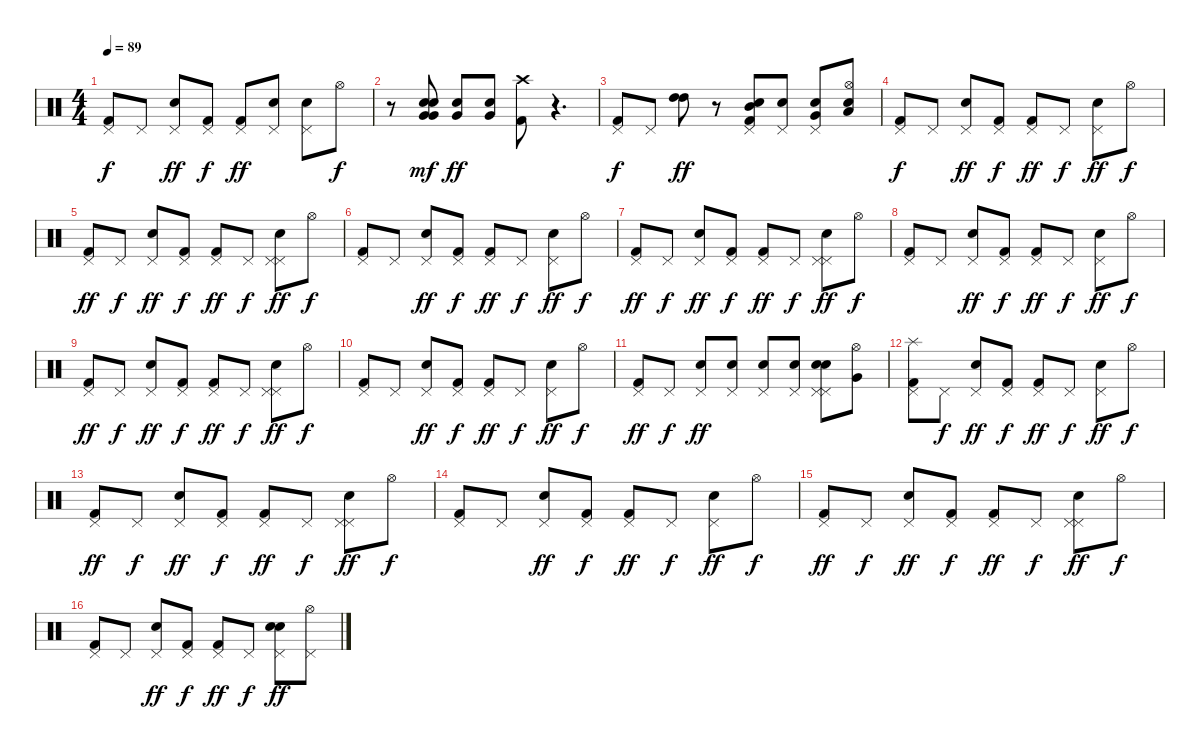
\track "" {instrument percussion}
\staff {score}
\articulation defaults
\ts (4 4)
\tempo 89
\clef neutral
\ks c
("Kick (hit) 2" "Pedal Hi-Hat (hit)").8{dy f} "Pedal Hi-Hat (hit)".8 ("Pedal Hi-Hat (hit)" "Electric Snare (hit)").8{dy ff} ("Pedal Hi-Hat (hit)" "Kick (hit) 2").8{dy f} ("Kick (hit) 2" "Pedal Hi-Hat (hit)").8{dy ff} ("Electric Snare (hit)" "Pedal Hi-Hat (hit)").8 ("Pedal Hi-Hat (hit)" "Electric Snare (hit)").8 "Hi-Hat (open)".8{dy f} |
r.8 ("Very Low Tom (hit)" "Electric Snare (hit)" "Electric Snare (hit)" "Very Low Tom (hit)").8{dy mf} ("Very Low Tom (hit)" "Electric Snare (hit)").8{dy ff} ("Very Low Tom (hit)" "Electric Snare (hit)").8 ("Kick (hit) 2" "Crash high (hit)").8 r.4{d} |
("Kick (hit) 2" "Pedal Hi-Hat (hit)").8{dy f} "Pedal Hi-Hat (hit)".8 ("High Tom (hit)" "High Tom (hit)").8{dy ff} r.8 ("Mid Tom (hit)" "Kick (hit) 2" "Pedal Hi-Hat (hit)" "Electric Snare (hit)").8 ("Pedal Hi-Hat (hit)" "Electric Snare (hit)").8 ("Pedal Hi-Hat (hit)" "Electric Snare (hit)" "Very Low Tom (hit)").8 ("Low Floor Tom (hit)" "Electric Snare (hit)" "Hi-Hat (open)").8 |
("Kick (hit) 2" "Pedal Hi-Hat (hit)").8{dy f} "Pedal Hi-Hat (hit)".8 ("Pedal Hi-Hat (hit)" "Electric Snare (hit)").8{dy ff} ("Pedal Hi-Hat (hit)" "Kick (hit) 2").8{dy f} ("Kick (hit) 2" "Pedal Hi-Hat (hit)").8{dy ff} "Pedal Hi-Hat (hit)".8{dy f} ("Pedal Hi-Hat (hit)" "Electric Snare (hit)").8{dy ff} "Hi-Hat (open)".8{dy f} |
("Pedal Hi-Hat (hit)" "Kick (hit) 2").8{dy ff} "Pedal Hi-Hat (hit)".8{dy f} ("Electric Snare (hit)" "Pedal Hi-Hat (hit)").8{dy ff} ("Pedal Hi-Hat (hit)" "Kick (hit) 2").8{dy f} ("Pedal Hi-Hat (hit)" "Kick (hit) 2").8{dy ff} "Pedal Hi-Hat (hit)".8{dy f} ("Pedal Hi-Hat (hit)" "Electric Snare (hit)" "Pedal Hi-Hat (hit)").8{dy ff} "Hi-Hat (open)".8{dy f} |
("Kick (hit) 2" "Pedal Hi-Hat (hit)").8 "Pedal Hi-Hat (hit)".8 ("Pedal Hi-Hat (hit)" "Electric Snare (hit)").8{dy ff} ("Pedal Hi-Hat (hit)" "Kick (hit) 2").8{dy f} ("Kick (hit) 2" "Pedal Hi-Hat (hit)").8{dy ff} "Pedal Hi-Hat (hit)".8{dy f} ("Pedal Hi-Hat (hit)" "Electric Snare (hit)").8{dy ff} "Hi-Hat (open)".8{dy f} |
("Pedal Hi-Hat (hit)" "Kick (hit) 2").8{dy ff} "Pedal Hi-Hat (hit)".8{dy f} ("Electric Snare (hit)" "Pedal Hi-Hat (hit)").8{dy ff} ("Pedal Hi-Hat (hit)" "Kick (hit) 2").8{dy f} ("Pedal Hi-Hat (hit)" "Kick (hit) 2").8{dy ff} "Pedal Hi-Hat (hit)".8{dy f} ("Pedal Hi-Hat (hit)" "Electric Snare (hit)" "Pedal Hi-Hat (hit)").8{dy ff} "Hi-Hat (open)".8{dy f} |
("Kick (hit) 2" "Pedal Hi-Hat (hit)").8 "Pedal Hi-Hat (hit)".8 ("Pedal Hi-Hat (hit)" "Electric Snare (hit)").8{dy ff} ("Pedal Hi-Hat (hit)" "Kick (hit) 2").8{dy f} ("Kick (hit) 2" "Pedal Hi-Hat (hit)").8{dy ff} "Pedal Hi-Hat (hit)".8{dy f} ("Pedal Hi-Hat (hit)" "Electric Snare (hit)").8{dy ff} "Hi-Hat (open)".8{dy f} |
("Pedal Hi-Hat (hit)" "Kick (hit) 2").8{dy ff} "Pedal Hi-Hat (hit)".8{dy f} ("Electric Snare (hit)" "Pedal Hi-Hat (hit)").8{dy ff} ("Pedal Hi-Hat (hit)" "Kick (hit) 2").8{dy f} ("Pedal Hi-Hat (hit)" "Kick (hit) 2").8{dy ff} "Pedal Hi-Hat (hit)".8{dy f} ("Pedal Hi-Hat (hit)" "Electric Snare (hit)" "Pedal Hi-Hat (hit)").8{dy ff} "Hi-Hat (open)".8{dy f} |
("Kick (hit) 2" "Pedal Hi-Hat (hit)").8 "Pedal Hi-Hat (hit)".8 ("Pedal Hi-Hat (hit)" "Electric Snare (hit)").8{dy ff} ("Pedal Hi-Hat (hit)" "Kick (hit) 2").8{dy f} ("Kick (hit) 2" "Pedal Hi-Hat (hit)").8{dy ff} "Pedal Hi-Hat (hit)".8{dy f} ("Pedal Hi-Hat (hit)" "Electric Snare (hit)").8{dy ff} "Hi-Hat (open)".8{dy f} |
("Pedal Hi-Hat (hit)" "Kick (hit) 2").8{dy ff} "Pedal Hi-Hat (hit)".8{dy f} ("Electric Snare (hit)" "Pedal Hi-Hat (hit)").8{dy ff} ("Pedal Hi-Hat (hit)" "Electric Snare (hit)").8 ("Electric Snare (hit)" "Pedal Hi-Hat (hit)").8 ("Electric Snare (hit)" "Pedal Hi-Hat (hit)").8 ("Electric Snare (hit)" "Pedal Hi-Hat (hit)" "Electric Snare (hit)" "Pedal Hi-Hat (hit)").8 ("Very Low Tom (hit)" "Hi-Hat (open)").8 |
("Splash (hit)" "Kick (hit) 2" "Pedal Hi-Hat (hit)").8 "Pedal Hi-Hat (hit)".8{dy f} ("Pedal Hi-Hat (hit)" "Electric Snare (hit)").8{dy ff} ("Pedal Hi-Hat (hit)" "Kick (hit) 2").8{dy f} ("Kick (hit) 2" "Pedal Hi-Hat (hit)").8{dy ff} "Pedal Hi-Hat (hit)".8{dy f} ("Pedal Hi-Hat (hit)" "Electric Snare (hit)").8{dy ff} "Hi-Hat (open)".8{dy f} |
("Pedal Hi-Hat (hit)" "Kick (hit) 2").8{dy ff} "Pedal Hi-Hat (hit)".8{dy f} ("Electric Snare (hit)" "Pedal Hi-Hat (hit)").8{dy ff} ("Pedal Hi-Hat (hit)" "Kick (hit) 2").8{dy f} ("Pedal Hi-Hat (hit)" "Kick (hit) 2").8{dy ff} "Pedal Hi-Hat (hit)".8{dy f} ("Pedal Hi-Hat (hit)" "Electric Snare (hit)" "Pedal Hi-Hat (hit)").8{dy ff} "Hi-Hat (open)".8{dy f} |
("Kick (hit) 2" "Pedal Hi-Hat (hit)").8 "Pedal Hi-Hat (hit)".8 ("Pedal Hi-Hat (hit)" "Electric Snare (hit)").8{dy ff} ("Pedal Hi-Hat (hit)" "Kick (hit) 2").8{dy f} ("Kick (hit) 2" "Pedal Hi-Hat (hit)").8{dy ff} "Pedal Hi-Hat (hit)".8{dy f} ("Pedal Hi-Hat (hit)" "Electric Snare (hit)").8{dy ff} "Hi-Hat (open)".8{dy f} |
("Pedal Hi-Hat (hit)" "Kick (hit) 2").8{dy ff} "Pedal Hi-Hat (hit)".8{dy f} ("Electric Snare (hit)" "Pedal Hi-Hat (hit)").8{dy ff} ("Pedal Hi-Hat (hit)" "Kick (hit) 2").8{dy f} ("Pedal Hi-Hat (hit)" "Kick (hit) 2").8{dy ff} "Pedal Hi-Hat (hit)".8{dy f} ("Pedal Hi-Hat (hit)" "Electric Snare (hit)" "Pedal Hi-Hat (hit)").8{dy ff} "Hi-Hat (open)".8{dy f} |
("Kick (hit) 2" "Pedal Hi-Hat (hit)").8 "Pedal Hi-Hat (hit)".8 ("Pedal Hi-Hat (hit)" "Electric Snare (hit)").8{dy ff} ("Pedal Hi-Hat (hit)" "Kick (hit) 2").8{dy f} ("Kick (hit) 2" "Pedal Hi-Hat (hit)").8{dy ff} "Pedal Hi-Hat (hit)".8{dy f} ("Pedal Hi-Hat (hit)" "Electric Snare (hit)" "Electric Snare (hit)").8{dy ff} ("Pedal Hi-Hat (hit)" "Hi-Hat (open)").8
